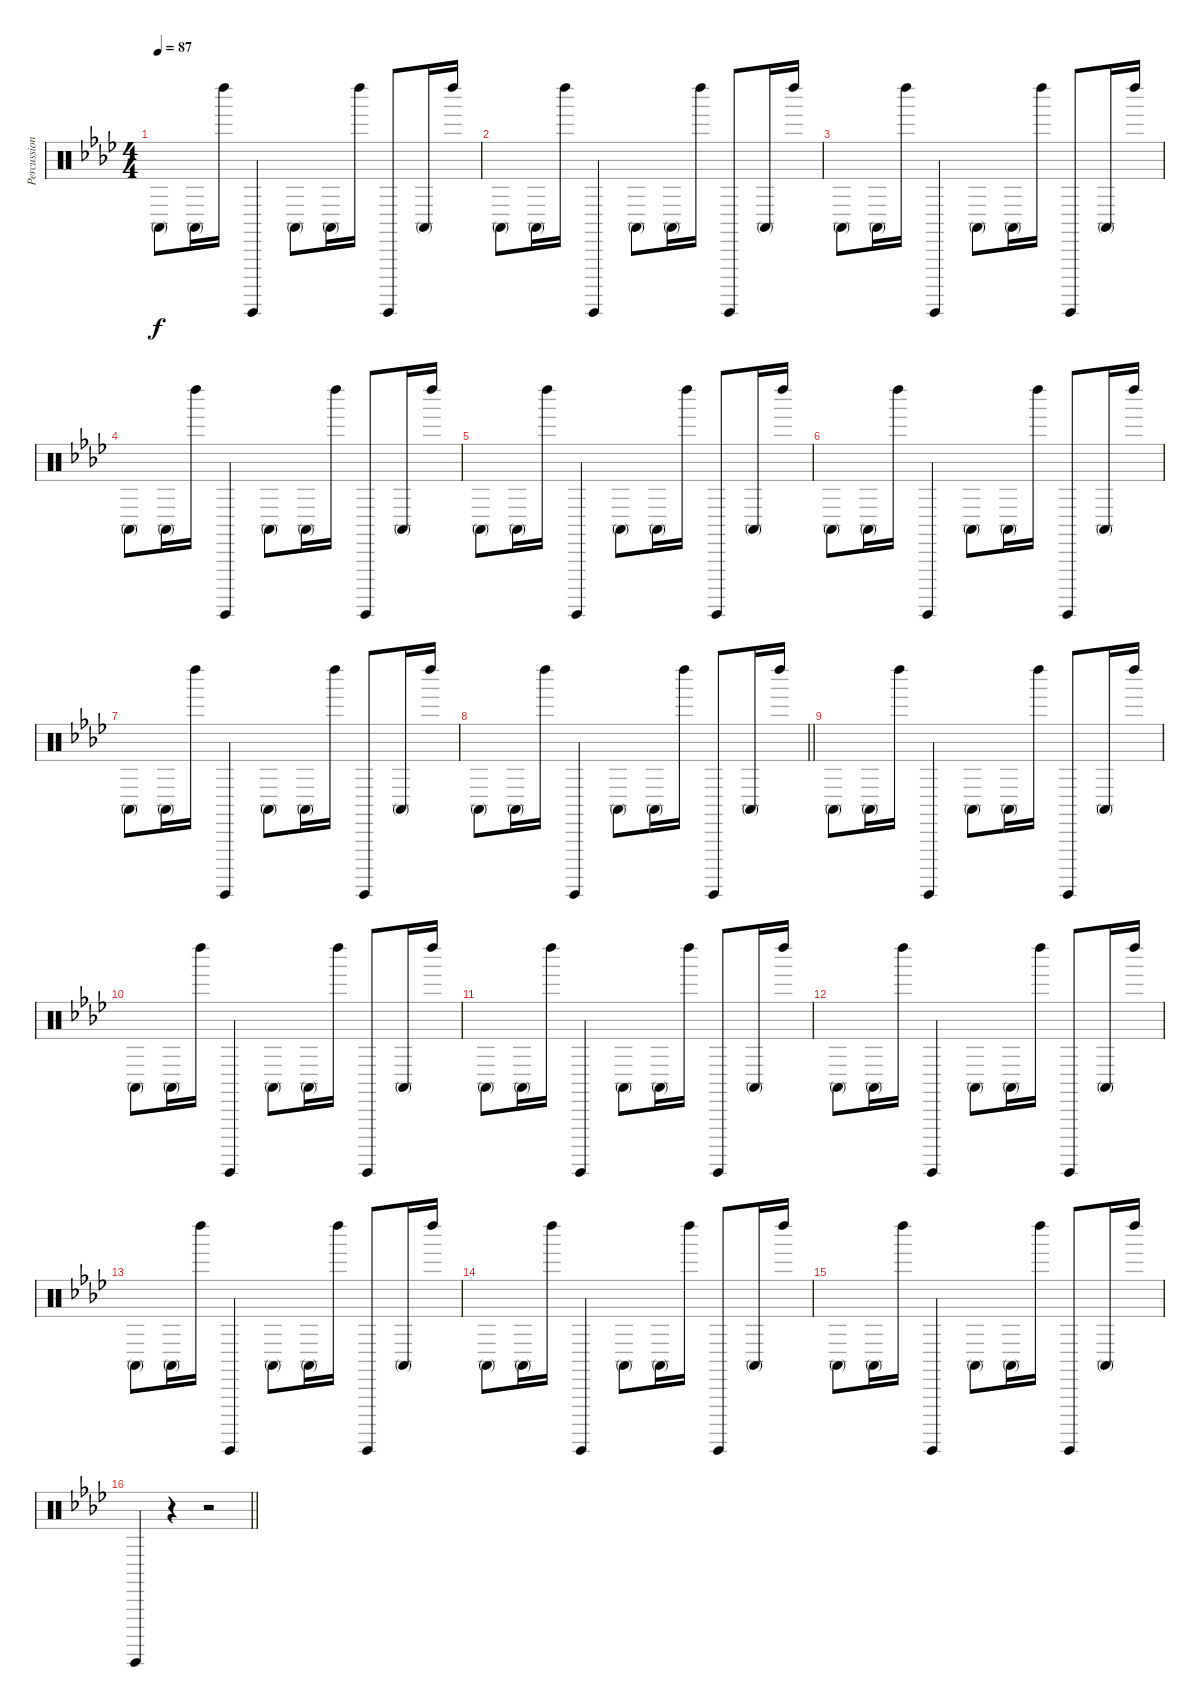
\track ("Percussion" "Percussion") {instrument percussion}
\staff {score}
\articulation defaults
\ts (4 4)
\section ("" " ")
\tempo 87
\clef neutral
\ks fminor "Conga high (mute)".8{dy f} "Conga high (mute)".16 "Left Maraca (hit)".16 "Guiro (hit)".4 "Conga high (mute)".8 "Conga high (mute)".16 "Left Maraca (hit)".16 "Guiro (hit)".8 "Conga high (mute)".16 "Left Maraca (hit)".16
|
"Conga high (mute)".8 "Conga high (mute)".16 "Left Maraca (hit)".16 "Guiro (hit)".4 "Conga high (mute)".8 "Conga high (mute)".16 "Left Maraca (hit)".16 "Guiro (hit)".8 "Conga high (mute)".16 "Left Maraca (hit)".16 |
"Conga high (mute)".8 "Conga high (mute)".16 "Left Maraca (hit)".16 "Guiro (hit)".4 "Conga high (mute)".8 "Conga high (mute)".16 "Left Maraca (hit)".16 "Guiro (hit)".8 "Conga high (mute)".16 "Left Maraca (hit)".16 |
"Conga high (mute)".8 "Conga high (mute)".16 "Left Maraca (hit)".16 "Guiro (hit)".4 "Conga high (mute)".8 "Conga high (mute)".16 "Left Maraca (hit)".16 "Guiro (hit)".8 "Conga high (mute)".16 "Left Maraca (hit)".16 |
"Conga high (mute)".8 "Conga high (mute)".16 "Left Maraca (hit)".16 "Guiro (hit)".4 "Conga high (mute)".8 "Conga high (mute)".16 "Left Maraca (hit)".16 "Guiro (hit)".8 "Conga high (mute)".16 "Left Maraca (hit)".16 |
"Conga high (mute)".8 "Conga high (mute)".16 "Left Maraca (hit)".16 "Guiro (hit)".4 "Conga high (mute)".8 "Conga high (mute)".16 "Left Maraca (hit)".16 "Guiro (hit)".8 "Conga high (mute)".16 "Left Maraca (hit)".16 |
"Conga high (mute)".8 "Conga high (mute)".16 "Left Maraca (hit)".16 "Guiro (hit)".4 "Conga high (mute)".8 "Conga high (mute)".16 "Left Maraca (hit)".16 "Guiro (hit)".8 "Conga high (mute)".16 "Left Maraca (hit)".16 |
\barLineRight lightlight "Conga high (mute)".8 "Conga high (mute)".16 "Left Maraca (hit)".16 "Guiro (hit)".4 "Conga high (mute)".8 "Conga high (mute)".16 "Left Maraca (hit)".16 "Guiro (hit)".8 "Conga high (mute)".16 "Left Maraca (hit)".16
|
\section ("" " ")
"Conga high (mute)".8 "Conga high (mute)".16 "Left Maraca (hit)".16 "Guiro (hit)".4 "Conga high (mute)".8 "Conga high (mute)".16 "Left Maraca (hit)".16 "Guiro (hit)".8 "Conga high (mute)".16 "Left Maraca (hit)".16 |
"Conga high (mute)".8 "Conga high (mute)".16 "Left Maraca (hit)".16 "Guiro (hit)".4 "Conga high (mute)".8 "Conga high (mute)".16 "Left Maraca (hit)".16 "Guiro (hit)".8 "Conga high (mute)".16 "Left Maraca (hit)".16 |
"Conga high (mute)".8 "Conga high (mute)".16 "Left Maraca (hit)".16 "Guiro (hit)".4 "Conga high (mute)".8 "Conga high (mute)".16 "Left Maraca (hit)".16 "Guiro (hit)".8 "Conga high (mute)".16 "Left Maraca (hit)".16 |
"Conga high (mute)".8 "Conga high (mute)".16 "Left Maraca (hit)".16 "Guiro (hit)".4 "Conga high (mute)".8 "Conga high (mute)".16 "Left Maraca (hit)".16 "Guiro (hit)".8 "Conga high (mute)".16 "Left Maraca (hit)".16 |
"Conga high (mute)".8 "Conga high (mute)".16 "Left Maraca (hit)".16 "Guiro (hit)".4 "Conga high (mute)".8 "Conga high (mute)".16 "Left Maraca (hit)".16 "Guiro (hit)".8 "Conga high (mute)".16 "Left Maraca (hit)".16 |
"Conga high (mute)".8 "Conga high (mute)".16 "Left Maraca (hit)".16 "Guiro (hit)".4 "Conga high (mute)".8 "Conga high (mute)".16 "Left Maraca (hit)".16 "Guiro (hit)".8 "Conga high (mute)".16 "Left Maraca (hit)".16 |
"Conga high (mute)".8 "Conga high (mute)".16 "Left Maraca (hit)".16 "Guiro (hit)".4 "Conga high (mute)".8 "Conga high (mute)".16 "Left Maraca (hit)".16 "Guiro (hit)".8 "Conga high (mute)".16 "Left Maraca (hit)".16 |
\barLineRight lightlight "Guiro (hit)".4
r.4 r.2
